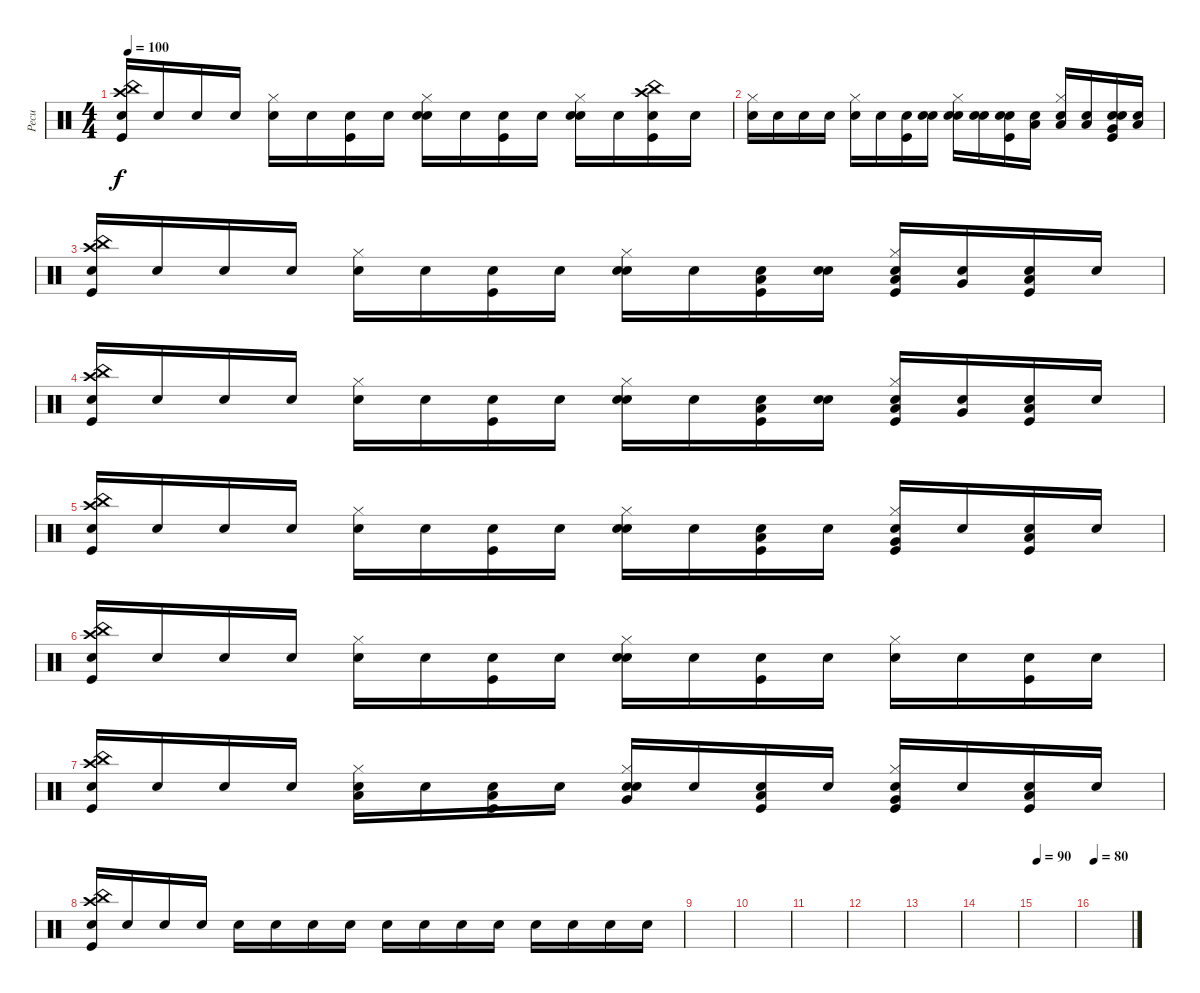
\track ("Pecu" "Pecu") {instrument percussion}
\staff {score}
\articulation defaults
\ts (4 4)
\tempo 100
\clef neutral
\ks c
("Snare (hit)" "Crash high (hit)" "China (hit)" "Kick (hit)").16{dy f} "Snare (hit)".16 "Snare (hit)".16 "Snare (hit)".16 ("Snare (hit)" "Hi-Hat (closed)").16 "Snare (hit)".16 ("Snare (hit)" "Kick (hit)").16 "Snare (hit)".16 ("Snare (hit)" "Hi-Hat (closed)" "Snare (hit) 2").16 "Snare (hit)".16 ("Snare (hit)" "Kick (hit)").16 "Snare (hit)".16 ("Snare (hit)" "Hi-Hat (closed)" "Snare (hit) 2").16 "Snare (hit)".16 ("Snare (hit)" "Crash high (hit)" "China (hit)" "Kick (hit)").16 "Snare (hit)".16 |
("Snare (hit)" "Hi-Hat (closed)").16 "Snare (hit)".16 "Snare (hit)".16 "Snare (hit)".16 ("Snare (hit)" "Hi-Hat (closed)").16 "Snare (hit)".16 ("Snare (hit)" "Kick (hit)").16 ("Snare (hit)" "Snare (hit) 2").16 ("Snare (hit)" "Hi-Hat (closed)" "Snare (hit) 2").16 ("Snare (hit)" "Snare (hit) 2").16 ("Snare (hit)" "Snare (hit) 2" "Kick (hit)").16 ("Snare (hit)" "Low Tom (hit)").16 ("Snare (hit)" "Hi-Hat (closed)" "Low Tom (hit)").16 ("Snare (hit)" "Low Tom (hit)").16 ("Snare (hit)" "Snare (hit) 2" "Very Low Tom (hit)" "Kick (hit)").16 ("Snare (hit)" "Low Floor Tom (hit)").16 |
("Snare (hit)" "Crash high (hit)" "China (hit)" "Kick (hit)").16 "Snare (hit)".16 "Snare (hit)".16 "Snare (hit)".16 ("Snare (hit)" "Hi-Hat (closed)").16 "Snare (hit)".16 ("Snare (hit)" "Kick (hit)").16 "Snare (hit)".16 ("Snare (hit)" "Hi-Hat (closed)" "Snare (hit) 2").16 "Snare (hit)".16 ("Snare (hit)" "Low Tom (hit)" "Kick (hit)").16 ("Snare (hit)" "Snare (hit) 2").16 ("Snare (hit)" "Hi-Hat (closed)" "Low Tom (hit)" "Kick (hit)").16 ("Snare (hit)" "Very Low Tom (hit)").16 ("Snare (hit)" "Low Floor Tom (hit)" "Kick (hit)").16 "Snare (hit)".16 |
("Snare (hit)" "Crash high (hit)" "China (hit)" "Kick (hit)").16 "Snare (hit)".16 "Snare (hit)".16 "Snare (hit)".16 ("Snare (hit)" "Hi-Hat (closed)").16 "Snare (hit)".16 ("Snare (hit)" "Kick (hit)").16 "Snare (hit)".16 ("Snare (hit)" "Hi-Hat (closed)" "Snare (hit) 2").16 "Snare (hit)".16 ("Snare (hit)" "Low Tom (hit)" "Kick (hit)").16 ("Snare (hit)" "Snare (hit) 2").16 ("Snare (hit)" "Hi-Hat (closed)" "Low Tom (hit)" "Kick (hit)").16 ("Snare (hit)" "Very Low Tom (hit)").16 ("Snare (hit)" "Low Floor Tom (hit)" "Kick (hit)").16 "Snare (hit)".16 |
("Snare (hit)" "Crash high (hit)" "China (hit)" "Kick (hit)").16 "Snare (hit)".16 "Snare (hit)".16 "Snare (hit)".16 ("Snare (hit)" "Hi-Hat (closed)").16 "Snare (hit)".16 ("Snare (hit)" "Kick (hit)").16 "Snare (hit)".16 ("Snare (hit)" "Hi-Hat (closed)" "Snare (hit) 2").16 "Snare (hit)".16 ("Snare (hit)" "Low Tom (hit)" "Kick (hit)").16 "Snare (hit)".16 ("Snare (hit)" "Hi-Hat (closed)" "Very Low Tom (hit)" "Kick (hit)").16 "Snare (hit)".16 ("Snare (hit)" "Low Floor Tom (hit)" "Kick (hit)").16 "Snare (hit)".16 |
("Snare (hit)" "Crash high (hit)" "China (hit)" "Kick (hit)").16 "Snare (hit)".16 "Snare (hit)".16 "Snare (hit)".16 ("Snare (hit)" "Hi-Hat (closed)").16 "Snare (hit)".16 ("Snare (hit)" "Kick (hit)").16 "Snare (hit)".16 ("Snare (hit)" "Hi-Hat (closed)" "Snare (hit) 2").16 "Snare (hit)".16 ("Snare (hit)" "Kick (hit)").16 "Snare (hit)".16 ("Snare (hit)" "Hi-Hat (closed)").16 "Snare (hit)".16 ("Snare (hit)" "Kick (hit)").16 "Snare (hit)".16 |
("Snare (hit)" "Crash high (hit)" "China (hit)" "Kick (hit)").16 "Snare (hit)".16 "Snare (hit)".16 "Snare (hit)".16 ("Snare (hit)" "Hi-Hat (closed)" "Low Tom (hit)").16 "Snare (hit)".16 ("Snare (hit)" "Low Tom (hit)" "Kick (hit)").16 "Snare (hit)".16 ("Snare (hit)" "Hi-Hat (closed)" "Snare (hit) 2" "Very Low Tom (hit)").16 "Snare (hit)".16 ("Snare (hit)" "Low Tom (hit)" "Kick (hit)").16 "Snare (hit)".16 ("Snare (hit)" "Hi-Hat (closed)" "Very Low Tom (hit)" "Kick (hit)").16 "Snare (hit)".16 ("Snare (hit)" "Low Floor Tom (hit)" "Kick (hit)").16 "Snare (hit)".16 |
("Snare (hit)" "Crash high (hit)" "China (hit)" "Kick (hit)").16 "Snare (hit)".16 "Snare (hit)".16 "Snare (hit)".16 "Snare (hit)".16 "Snare (hit)".16 "Snare (hit)".16 "Snare (hit)".16 "Snare (hit)".16 "Snare (hit)".16 "Snare (hit)".16 "Snare (hit)".16 "Snare (hit)".16 "Snare (hit)".16 "Snare (hit)".16 "Snare (hit)".16 |
|
|
|
|
|
|
\tempo 90
|
\tempo 80
